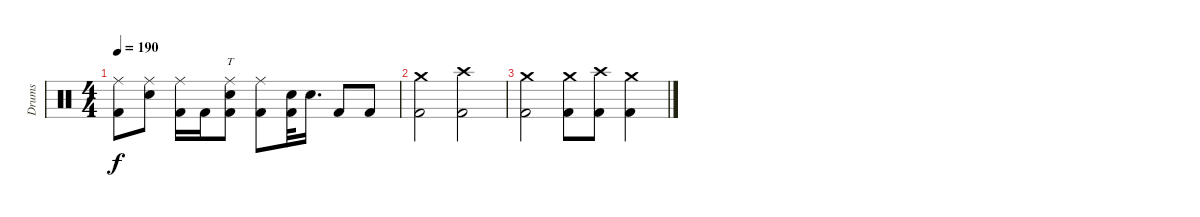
\track ("Drums" "Drums") {instrument percussion}
\staff {score}
\articulation defaults
\ts (4 4)
\tempo 190
\clef neutral
\ks c
("Ride (middle)" "Kick (hit) 2").8{dy f} ("Ride (middle)" "Electric Snare (hit)").8 ("Ride (middle)" "Kick (hit) 2").16 "Kick (hit) 2".16 ("Ride (middle)" "Electric Snare (hit)" "Kick (hit) 2").8{tt} ("Ride (middle)" "Kick (hit) 2").8 ("Electric Snare (hit)" "Kick (hit) 2").32 "Electric Snare (hit)".16{d} "Kick (hit) 2".8 "Kick (hit) 2".8 |
("Crash medium (hit)" "Kick (hit) 2").2 ("Crash high (hit)" "Kick (hit) 2").2 |
("Crash medium (hit)" "Kick (hit) 2").2 ("Crash medium (hit)" "Kick (hit) 2").8 ("Crash high (hit)" "Kick (hit) 2").8 ("Crash medium (hit)" "Kick (hit) 2").4
